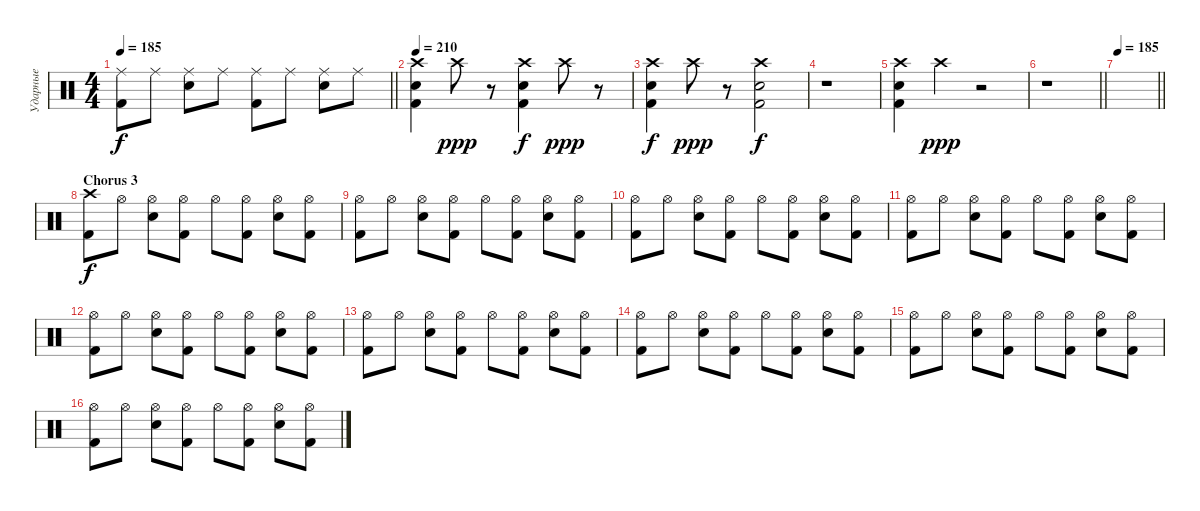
\track ("Ударные" "Ударные") {instrument percussion}
\staff {score}
\articulation defaults
\ts (4 4)
\tempo 185
\clef neutral
\barLineRight lightlight
\ks c
("Ride (middle)" "Kick (hit) 2").8{dy f} "Ride (middle)".8 ("Ride (middle)" "Electric Snare (hit)").8 "Ride (middle)".8 ("Ride (middle)" "Kick (hit) 2").8 "Ride (middle)".8 ("Ride (middle)" "Electric Snare (hit)").8 "Ride (middle)".8 |
\tempo 210
("Kick (hit) 2" "Electric Snare (hit)" "Crash high (hit)").4{volume 12} "Crash high (hit)".8{dy ppp volume 0} r.8 ("Kick (hit) 2" "Electric Snare (hit)" "Crash high (hit)").4{dy f volume 12} "Crash high (hit)".8{dy ppp volume 0} r.8 |
("Kick (hit) 2" "Electric Snare (hit)" "Crash high (hit)").4{dy f volume 12} "Crash high (hit)".8{dy ppp volume 0} r.8 ("Kick (hit) 2" "Electric Snare (hit)" "Crash high (hit)").2{dy f volume 12} |
r.1 |
("Kick (hit) 2" "Electric Snare (hit)" "Crash high (hit)").4{volume 12} "Crash high (hit)".4{dy ppp volume 0} r.2 |
\barLineRight lightlight
r.1{volume 12} |
\tempo 185
\barLineRight lightlight
|
\section ("" "Chorus 3")
("Kick (hit) 2" "Crash high (hit)").8{dy f} "Hi-Hat (open)".8 ("Hi-Hat (open)" "Electric Snare (hit)").8 ("Hi-Hat (open)" "Kick (hit) 2").8 "Hi-Hat (open)".8 ("Hi-Hat (open)" "Kick (hit) 2").8 ("Hi-Hat (open)" "Electric Snare (hit)").8 ("Hi-Hat (open)" "Kick (hit) 2").8 |
("Kick (hit) 2" "Hi-Hat (open)").8 "Hi-Hat (open)".8 ("Hi-Hat (open)" "Electric Snare (hit)").8 ("Hi-Hat (open)" "Kick (hit) 2").8 "Hi-Hat (open)".8 ("Hi-Hat (open)" "Kick (hit) 2").8 ("Hi-Hat (open)" "Electric Snare (hit)").8 ("Hi-Hat (open)" "Kick (hit) 2").8 |
("Kick (hit) 2" "Hi-Hat (open)").8 "Hi-Hat (open)".8 ("Hi-Hat (open)" "Electric Snare (hit)").8 ("Hi-Hat (open)" "Kick (hit) 2").8 "Hi-Hat (open)".8 ("Hi-Hat (open)" "Kick (hit) 2").8 ("Hi-Hat (open)" "Electric Snare (hit)").8 ("Hi-Hat (open)" "Kick (hit) 2").8 |
("Kick (hit) 2" "Hi-Hat (open)").8 "Hi-Hat (open)".8 ("Hi-Hat (open)" "Electric Snare (hit)").8 ("Hi-Hat (open)" "Kick (hit) 2").8 "Hi-Hat (open)".8 ("Hi-Hat (open)" "Kick (hit) 2").8 ("Hi-Hat (open)" "Electric Snare (hit)").8 ("Hi-Hat (open)" "Kick (hit) 2").8 |
("Kick (hit) 2" "Hi-Hat (open)").8 "Hi-Hat (open)".8 ("Hi-Hat (open)" "Electric Snare (hit)").8 ("Hi-Hat (open)" "Kick (hit) 2").8 "Hi-Hat (open)".8 ("Hi-Hat (open)" "Kick (hit) 2").8 ("Hi-Hat (open)" "Electric Snare (hit)").8 ("Hi-Hat (open)" "Kick (hit) 2").8 |
("Kick (hit) 2" "Hi-Hat (open)").8 "Hi-Hat (open)".8 ("Hi-Hat (open)" "Electric Snare (hit)").8 ("Hi-Hat (open)" "Kick (hit) 2").8 "Hi-Hat (open)".8 ("Hi-Hat (open)" "Kick (hit) 2").8 ("Hi-Hat (open)" "Electric Snare (hit)").8 ("Hi-Hat (open)" "Kick (hit) 2").8 |
("Kick (hit) 2" "Hi-Hat (open)").8 "Hi-Hat (open)".8 ("Hi-Hat (open)" "Electric Snare (hit)").8 ("Hi-Hat (open)" "Kick (hit) 2").8 "Hi-Hat (open)".8 ("Hi-Hat (open)" "Kick (hit) 2").8 ("Hi-Hat (open)" "Electric Snare (hit)").8 ("Hi-Hat (open)" "Kick (hit) 2").8 |
("Kick (hit) 2" "Hi-Hat (open)").8 "Hi-Hat (open)".8 ("Hi-Hat (open)" "Electric Snare (hit)").8 ("Hi-Hat (open)" "Kick (hit) 2").8 "Hi-Hat (open)".8 ("Hi-Hat (open)" "Kick (hit) 2").8 ("Hi-Hat (open)" "Electric Snare (hit)").8 ("Hi-Hat (open)" "Kick (hit) 2").8 |
("Kick (hit) 2" "Hi-Hat (open)").8 "Hi-Hat (open)".8 ("Hi-Hat (open)" "Electric Snare (hit)").8 ("Hi-Hat (open)" "Kick (hit) 2").8 "Hi-Hat (open)".8 ("Hi-Hat (open)" "Kick (hit) 2").8 ("Hi-Hat (open)" "Electric Snare (hit)").8 ("Hi-Hat (open)" "Kick (hit) 2").8
